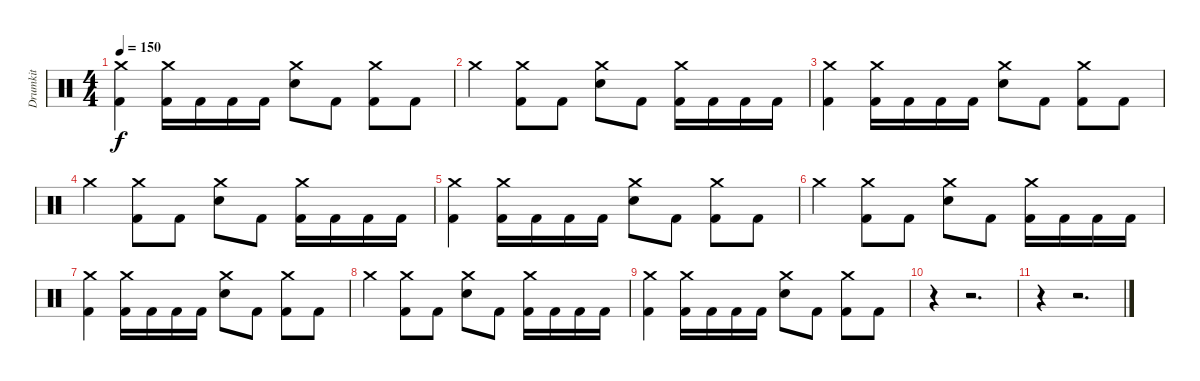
\track ("Drumkit" "Drumkit") {instrument percussion}
\staff {score}
\articulation defaults
\ts (4 4)
\tempo 150
\clef neutral
\ks c
("Crash medium (hit)" "Kick (hit) 2").4{dy f} ("Kick (hit) 2" "Crash medium (hit)").16 "Kick (hit) 2".16 "Kick (hit) 2".16 "Kick (hit) 2".16 ("Crash medium (hit)" "Snare (hit) 2").8 "Kick (hit) 2".8 ("Kick (hit) 2" "Crash medium (hit)").8 "Kick (hit) 2".8 |
"Crash medium (hit)".4 ("Kick (hit) 2" "Crash medium (hit)").8 "Kick (hit) 2".8 ("Snare (hit) 2" "Crash medium (hit)").8 "Kick (hit) 2".8 ("Kick (hit) 2" "Crash medium (hit)").16 "Kick (hit) 2".16 "Kick (hit) 2".16 "Kick (hit) 2".16 |
("Crash medium (hit)" "Kick (hit) 2").4 ("Kick (hit) 2" "Crash medium (hit)").16 "Kick (hit) 2".16 "Kick (hit) 2".16 "Kick (hit) 2".16 ("Crash medium (hit)" "Snare (hit) 2").8 "Kick (hit) 2".8 ("Kick (hit) 2" "Crash medium (hit)").8 "Kick (hit) 2".8 |
"Crash medium (hit)".4 ("Kick (hit) 2" "Crash medium (hit)").8 "Kick (hit) 2".8 ("Snare (hit) 2" "Crash medium (hit)").8 "Kick (hit) 2".8 ("Kick (hit) 2" "Crash medium (hit)").16 "Kick (hit) 2".16 "Kick (hit) 2".16 "Kick (hit) 2".16 |
("Crash medium (hit)" "Kick (hit) 2").4 ("Kick (hit) 2" "Crash medium (hit)").16 "Kick (hit) 2".16 "Kick (hit) 2".16 "Kick (hit) 2".16 ("Crash medium (hit)" "Snare (hit) 2").8 "Kick (hit) 2".8 ("Kick (hit) 2" "Crash medium (hit)").8 "Kick (hit) 2".8 |
"Crash medium (hit)".4 ("Kick (hit) 2" "Crash medium (hit)").8 "Kick (hit) 2".8 ("Snare (hit) 2" "Crash medium (hit)").8 "Kick (hit) 2".8 ("Kick (hit) 2" "Crash medium (hit)").16 "Kick (hit) 2".16 "Kick (hit) 2".16 "Kick (hit) 2".16 |
("Crash medium (hit)" "Kick (hit) 2").4 ("Kick (hit) 2" "Crash medium (hit)").16 "Kick (hit) 2".16 "Kick (hit) 2".16 "Kick (hit) 2".16 ("Crash medium (hit)" "Snare (hit) 2").8 "Kick (hit) 2".8 ("Kick (hit) 2" "Crash medium (hit)").8 "Kick (hit) 2".8 |
"Crash medium (hit)".4 ("Kick (hit) 2" "Crash medium (hit)").8 "Kick (hit) 2".8 ("Snare (hit) 2" "Crash medium (hit)").8 "Kick (hit) 2".8 ("Kick (hit) 2" "Crash medium (hit)").16 "Kick (hit) 2".16 "Kick (hit) 2".16 "Kick (hit) 2".16 |
("Crash medium (hit)" "Kick (hit) 2").4 ("Kick (hit) 2" "Crash medium (hit)").16 "Kick (hit) 2".16 "Kick (hit) 2".16 "Kick (hit) 2".16 ("Crash medium (hit)" "Snare (hit) 2").8 "Kick (hit) 2".8 ("Kick (hit) 2" "Crash medium (hit)").8 "Kick (hit) 2".8 |
r.4 r.2{d} |
r.4 r.2{d}
